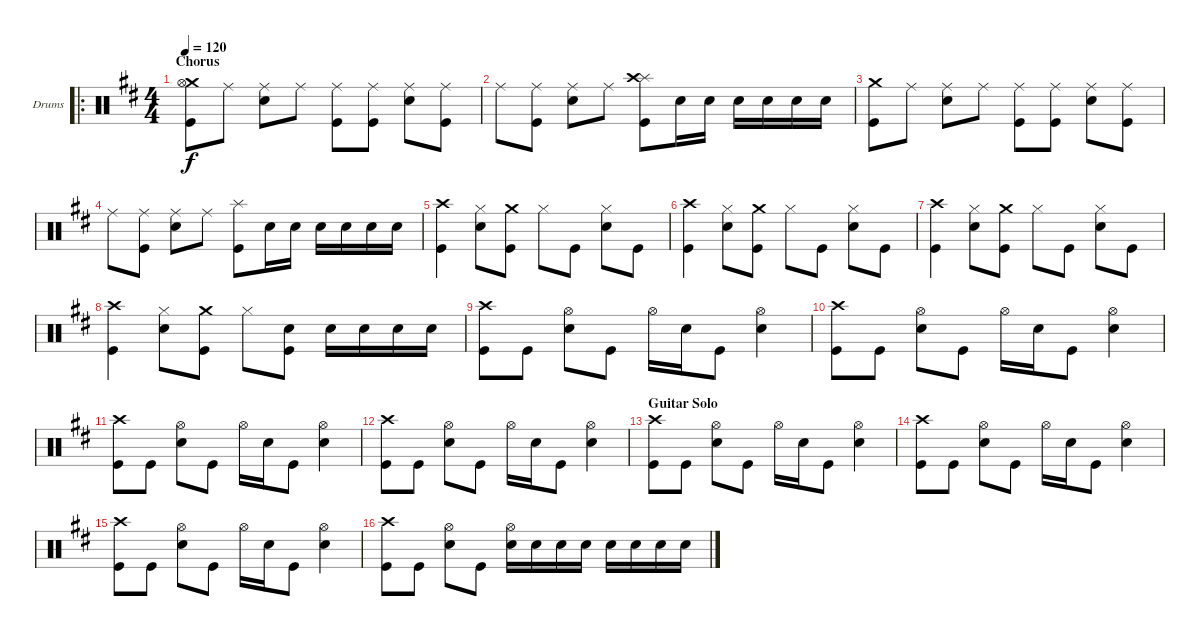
\defaultSystemsLayout 4
\bracketExtendMode groupsimilarinstruments
\firstSystemTrackNameOrientation horizontal
\otherSystemsTrackNameOrientation horizontal
\track ("Drumkit" "Drums") {instrument percussion}
\staff {score}
\articulation defaults
\ro
\ts (4 4)
\section ("" "Chorus")
\tempo 120
\clef neutral
\scale
0.949559
\ks d
("Crash medium (hit)" "Kick (hit)" "Hi-Hat (open)").8{dy f} "Ride (middle)".8 ("Ride (middle)" "Snare (hit) 2").8 "Ride (middle)".8 ("Ride (middle)" "Kick (hit)").8 ("Ride (middle)" "Kick (hit)").8 ("Ride (middle)" "Snare (hit) 2").8 ("Ride (middle)" "Kick (hit)").8 |
\scale
0.949559 "Ride (middle)".8 ("Ride (middle)" "Kick (hit)").8 ("Ride (middle)" "Snare (hit) 2").8 "Ride (middle)".8 ("Splash (hit)" "Kick (hit)" "Crash high (hit)").8 "Snare (hit) 2".16 "Snare (hit) 2".16 "Snare (hit) 2".16 "Snare (hit) 2".16 "Snare (hit) 2".16 "Snare (hit) 2".16 |
\scale
1.10088 ("Crash medium (hit)" "Kick (hit)").8 "Ride (middle)".8 ("Ride (middle)" "Snare (hit) 2").8 "Ride (middle)".8 ("Ride (middle)" "Kick (hit)").8 ("Ride (middle)" "Kick (hit)").8 ("Ride (middle)" "Snare (hit) 2").8 ("Ride (middle)" "Kick (hit)").8 |
\scale
0.949559 "Ride (middle)".8 ("Ride (middle)" "Kick (hit)").8 ("Ride (middle)" "Snare (hit) 2").8 "Ride (middle)".8 ("Splash (hit)" "Kick (hit)").8 "Snare (hit) 2".16 "Snare (hit) 2".16 "Snare (hit) 2".16 "Snare (hit) 2".16 "Snare (hit) 2".16 "Snare (hit) 2".16 |
\scale
0.949559 ("Crash high (hit)" "Kick (hit)").4 ("Hi-Hat (closed)" "Snare (hit) 2").8 ("Crash medium (hit)" "Kick (hit)").8 "Hi-Hat (closed)".8 "Kick (hit)".8 ("Hi-Hat (closed)" "Snare (hit) 2").8 "Kick (hit)".8 |
\scale
1.10088 ("Crash high (hit)" "Kick (hit)").4 ("Hi-Hat (closed)" "Snare (hit) 2").8 ("Crash medium (hit)" "Kick (hit)").8 "Hi-Hat (closed)".8 "Kick (hit)".8 ("Hi-Hat (closed)" "Snare (hit) 2").8 "Kick (hit)".8 |
\scale
0.949559 ("Crash high (hit)" "Kick (hit)").4 ("Hi-Hat (closed)" "Snare (hit) 2").8 ("Crash medium (hit)" "Kick (hit)").8 "Hi-Hat (closed)".8 "Kick (hit)".8 ("Hi-Hat (closed)" "Snare (hit) 2").8 "Kick (hit)".8 |
\scale
0.949559 ("Crash high (hit)" "Kick (hit)").4 ("Hi-Hat (closed)" "Snare (hit) 2").8 ("Crash medium (hit)" "Kick (hit)").8 "Hi-Hat (closed)".8 ("Snare (hit) 2" "Kick (hit)").8 "Snare (hit) 2".16 "Snare (hit) 2".16 "Snare (hit) 2".16 "Snare (hit) 2".16 |
\scale
1.10088 ("Crash high (hit)" "Kick (hit)").8 "Kick (hit)".8 ("Hi-Hat (open)" "Snare (hit) 2").8 "Kick (hit)".8 "Hi-Hat (open)".16 "Snare (hit) 2".16 "Kick (hit)".8 ("Hi-Hat (open)" "Snare (hit) 2").4 |
\scale
0.949559 ("Crash high (hit)" "Kick (hit)").8 "Kick (hit)".8 ("Hi-Hat (open)" "Snare (hit) 2").8 "Kick (hit)".8 "Hi-Hat (open)".16 "Snare (hit) 2".16 "Kick (hit)".8 ("Hi-Hat (open)" "Snare (hit) 2").4 |
\scale
0.949559 ("Crash high (hit)" "Kick (hit)").8 "Kick (hit)".8 ("Hi-Hat (open)" "Snare (hit) 2").8 "Kick (hit)".8 "Hi-Hat (open)".16 "Snare (hit) 2".16 "Kick (hit)".8 ("Hi-Hat (open)" "Snare (hit) 2").4 |
\scale
1.10088 ("Crash high (hit)" "Kick (hit)").8 "Kick (hit)".8 ("Hi-Hat (open)" "Snare (hit) 2").8 "Kick (hit)".8 "Hi-Hat (open)".16 "Snare (hit) 2".16 "Kick (hit)".8 ("Hi-Hat (open)" "Snare (hit) 2").4 |
\section ("" "Guitar Solo")
\scale
0.949559 ("Crash high (hit)" "Kick (hit)").8 "Kick (hit)".8 ("Hi-Hat (open)" "Snare (hit) 2").8 "Kick (hit)".8 "Hi-Hat (open)".16 "Snare (hit) 2".16 "Kick (hit)".8 ("Hi-Hat (open)" "Snare (hit) 2").4 |
\scale
0.949559 ("Crash high (hit)" "Kick (hit)").8 "Kick (hit)".8 ("Hi-Hat (open)" "Snare (hit) 2").8 "Kick (hit)".8 "Hi-Hat (open)".16 "Snare (hit) 2".16 "Kick (hit)".8 ("Hi-Hat (open)" "Snare (hit) 2").4 |
\scale
1.10088 ("Crash high (hit)" "Kick (hit)").8 "Kick (hit)".8 ("Hi-Hat (open)" "Snare (hit) 2").8 "Kick (hit)".8 "Hi-Hat (open)".16 "Snare (hit) 2".16 "Kick (hit)".8 ("Hi-Hat (open)" "Snare (hit) 2").4 |
\scale
0.949559 ("Crash high (hit)" "Kick (hit)").8 "Kick (hit)".8 ("Hi-Hat (open)" "Snare (hit) 2").8 "Kick (hit)".8 ("Hi-Hat (open)" "Snare (hit) 2").16 "Snare (hit) 2".16 "Snare (hit) 2".16 "Snare (hit) 2".16 "Snare (hit) 2".16 "Snare (hit) 2".16 "Snare (hit) 2".16 "Snare (hit) 2".16
